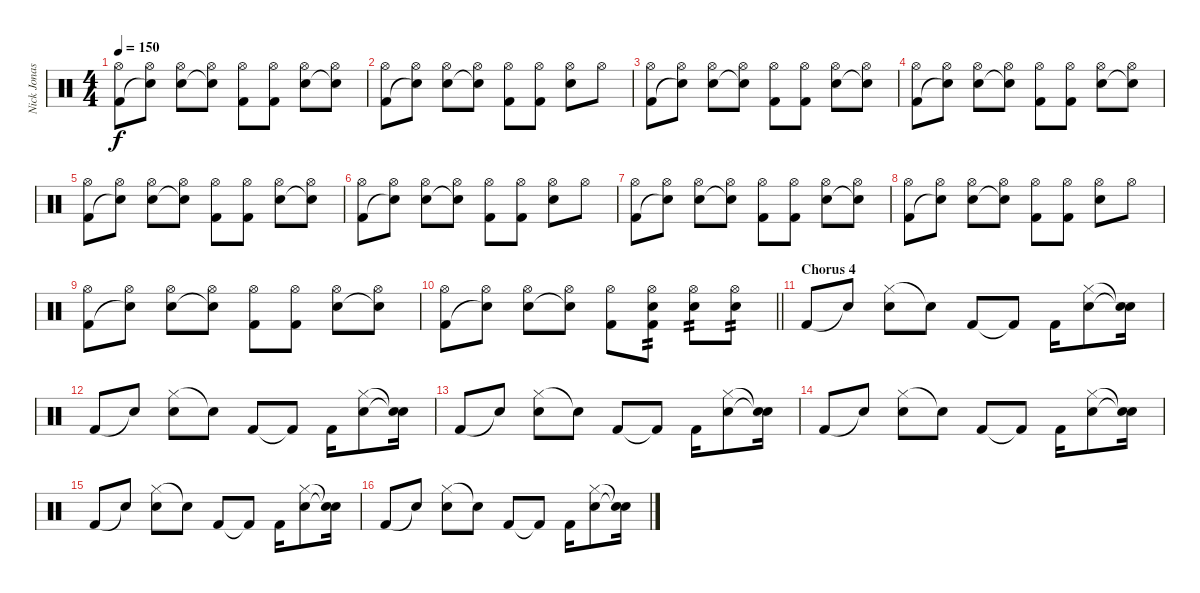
\track ("Nick Jonas Drums" "Nick Jonas") {instrument percussion}
\staff {score}
\articulation defaults
\ts (4 4)
\tempo 150
\clef neutral
\ks c
("Hi-Hat (open)" "Kick (hit) 2").8{dy f} ("Hi-Hat (open)" "Snare (hit)"{t}).8 ("Hi-Hat (open)" "Electric Snare (hit)").8 ("Hi-Hat (open)" "Snare (hit)"{t}).8 ("Hi-Hat (open)" "Kick (hit) 2").8 ("Hi-Hat (open)" "Kick (hit) 2").8 ("Hi-Hat (open)" "Electric Snare (hit)").8 ("Hi-Hat (open)" "Snare (hit)"{t}).8 |
("Hi-Hat (open)" "Kick (hit) 2").8 ("Hi-Hat (open)" "Snare (hit)"{t}).8 ("Hi-Hat (open)" "Electric Snare (hit)").8 ("Hi-Hat (open)" "Snare (hit)"{t}).8 ("Hi-Hat (open)" "Kick (hit) 2").8 ("Hi-Hat (open)" "Kick (hit) 2").8 ("Hi-Hat (open)" "Electric Snare (hit)").8 "Hi-Hat (open)".8 |
("Hi-Hat (open)" "Kick (hit) 2").8 ("Hi-Hat (open)" "Snare (hit)"{t}).8 ("Hi-Hat (open)" "Electric Snare (hit)").8 ("Hi-Hat (open)" "Snare (hit)"{t}).8 ("Hi-Hat (open)" "Kick (hit) 2").8 ("Hi-Hat (open)" "Kick (hit) 2").8 ("Hi-Hat (open)" "Electric Snare (hit)").8 ("Hi-Hat (open)" "Snare (hit)"{t}).8 |
("Hi-Hat (open)" "Kick (hit) 2").8 ("Hi-Hat (open)" "Snare (hit)"{t}).8 ("Hi-Hat (open)" "Electric Snare (hit)").8 ("Hi-Hat (open)" "Snare (hit)"{t}).8 ("Hi-Hat (open)" "Kick (hit) 2").8 ("Hi-Hat (open)" "Kick (hit) 2").8 ("Hi-Hat (open)" "Electric Snare (hit)").8 ("Hi-Hat (open)" "Snare (hit)"{t}).8 |
("Hi-Hat (open)" "Kick (hit) 2").8 ("Hi-Hat (open)" "Snare (hit)"{t}).8 ("Hi-Hat (open)" "Electric Snare (hit)").8 ("Hi-Hat (open)" "Snare (hit)"{t}).8 ("Hi-Hat (open)" "Kick (hit) 2").8 ("Hi-Hat (open)" "Kick (hit) 2").8 ("Hi-Hat (open)" "Electric Snare (hit)").8 ("Hi-Hat (open)" "Snare (hit)"{t}).8 |
("Hi-Hat (open)" "Kick (hit) 2").8 ("Hi-Hat (open)" "Snare (hit)"{t}).8 ("Hi-Hat (open)" "Electric Snare (hit)").8 ("Hi-Hat (open)" "Snare (hit)"{t}).8 ("Hi-Hat (open)" "Kick (hit) 2").8 ("Hi-Hat (open)" "Kick (hit) 2").8 ("Hi-Hat (open)" "Electric Snare (hit)").8 "Hi-Hat (open)".8 |
("Hi-Hat (open)" "Kick (hit) 2").8 ("Hi-Hat (open)" "Snare (hit)"{t}).8 ("Hi-Hat (open)" "Electric Snare (hit)").8 ("Hi-Hat (open)" "Snare (hit)"{t}).8 ("Hi-Hat (open)" "Kick (hit) 2").8 ("Hi-Hat (open)" "Kick (hit) 2").8 ("Hi-Hat (open)" "Electric Snare (hit)").8 ("Hi-Hat (open)" "Snare (hit)"{t}).8 |
("Hi-Hat (open)" "Kick (hit) 2").8 ("Hi-Hat (open)" "Snare (hit)"{t}).8 ("Hi-Hat (open)" "Electric Snare (hit)").8 ("Hi-Hat (open)" "Snare (hit)"{t}).8 ("Hi-Hat (open)" "Kick (hit) 2").8 ("Hi-Hat (open)" "Kick (hit) 2").8 ("Hi-Hat (open)" "Electric Snare (hit)").8 "Hi-Hat (open)".8 |
("Hi-Hat (open)" "Kick (hit) 2").8 ("Hi-Hat (open)" "Snare (hit)"{t}).8 ("Hi-Hat (open)" "Electric Snare (hit)").8 ("Hi-Hat (open)" "Snare (hit)"{t}).8 ("Hi-Hat (open)" "Kick (hit) 2").8 ("Hi-Hat (open)" "Kick (hit) 2").8 ("Hi-Hat (open)" "Electric Snare (hit)").8 ("Hi-Hat (open)" "Snare (hit)"{t}).8 |
\barLineRight lightlight
("Hi-Hat (open)" "Kick (hit) 2").8 ("Hi-Hat (open)" "Snare (hit)"{t}).8 ("Hi-Hat (open)" "Electric Snare (hit)").8 ("Hi-Hat (open)" "Snare (hit)"{t}).8 ("Hi-Hat (open)" "Kick (hit) 2").8 ("Hi-Hat (open)" "Electric Snare (hit)" "Kick (hit) 2").8{tp 2} ("Hi-Hat (open)" "Electric Snare (hit)").8{tp 2} ("Hi-Hat (open)" "Electric Snare (hit)").8{tp 2} |
\section ("" "Chorus 4")
"Kick (hit) 2".8 "Snare (hit)"{t}.8 ("Hi-Hat (closed)" "Electric Snare (hit)").8 "Snare (hit)"{t}.8 "Kick (hit) 2".8 "Kick (hit) 2"{t}.8 "Kick (hit) 2".16 ("Hi-Hat (closed)" "Electric Snare (hit)").8 ("Snare (hit)"{t} "Snare (hit)"{t}).16 |
"Kick (hit) 2".8 "Snare (hit)"{t}.8 ("Hi-Hat (closed)" "Electric Snare (hit)").8 "Snare (hit)"{t}.8 "Kick (hit) 2".8 "Kick (hit) 2"{t}.8 "Kick (hit) 2".16 ("Hi-Hat (closed)" "Electric Snare (hit)").8 ("Snare (hit)"{t} "Snare (hit)"{t}).16 |
"Kick (hit) 2".8 "Snare (hit)"{t}.8 ("Hi-Hat (closed)" "Electric Snare (hit)").8 "Snare (hit)"{t}.8 "Kick (hit) 2".8 "Kick (hit) 2"{t}.8 "Kick (hit) 2".16 ("Hi-Hat (closed)" "Electric Snare (hit)").8 ("Snare (hit)"{t} "Snare (hit)"{t}).16 |
"Kick (hit) 2".8 "Snare (hit)"{t}.8 ("Hi-Hat (closed)" "Electric Snare (hit)").8 "Snare (hit)"{t}.8 "Kick (hit) 2".8 "Kick (hit) 2"{t}.8 "Kick (hit) 2".16 ("Hi-Hat (closed)" "Electric Snare (hit)").8 ("Snare (hit)"{t} "Snare (hit)"{t}).16 |
"Kick (hit) 2".8 "Snare (hit)"{t}.8 ("Hi-Hat (closed)" "Electric Snare (hit)").8 "Snare (hit)"{t}.8 "Kick (hit) 2".8 "Kick (hit) 2"{t}.8 "Kick (hit) 2".16 ("Hi-Hat (closed)" "Electric Snare (hit)").8 ("Snare (hit)"{t} "Snare (hit)"{t}).16 |
"Kick (hit) 2".8 "Snare (hit)"{t}.8 ("Hi-Hat (closed)" "Electric Snare (hit)").8 "Snare (hit)"{t}.8 "Kick (hit) 2".8 "Kick (hit) 2"{t}.8 "Kick (hit) 2".16 ("Hi-Hat (closed)" "Electric Snare (hit)").8 ("Snare (hit)"{t} "Snare (hit)"{t}).16
